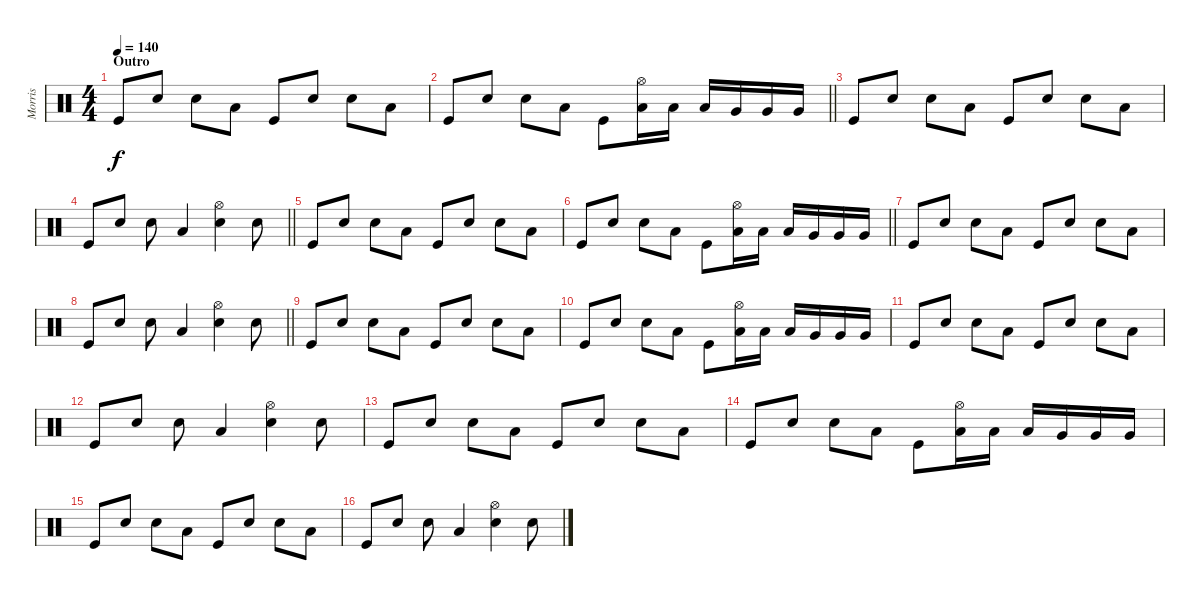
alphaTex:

\track ("Morris" "Morris") {instrument percussion}
\staff {score}
\articulation defaults
\ts (4 4)
\section ("" "Outro")
\tempo 140
\clef neutral
\ks c "Kick (hit)".8{dy f} "Electric Snare (hit)".8 "Electric Snare (hit)".8 "Low Tom (hit)".8 "Kick (hit)".8 "Electric Snare (hit)".8 "Electric Snare (hit)".8 "Low Tom (hit)".8
|
\barLineRight lightlight "Kick (hit)".8 "Electric Snare (hit)".8 "Electric Snare (hit)".8 "Low Tom (hit)".8 "Kick (hit)".8
("Hi-Hat (open)" "Low Tom (hit)").16 "Low Tom (hit)".16 "Low Tom (hit)".16 "Very Low Tom (hit)".16 "Very Low Tom (hit)".16 "Very Low Tom (hit)".16 |
"Kick (hit)".8 "Electric Snare (hit)".8 "Electric Snare (hit)".8 "Low Tom (hit)".8 "Kick (hit)".8 "Electric Snare (hit)".8 "Electric Snare (hit)".8 "Low Tom (hit)".8 |
\barLineRight lightlight "Kick (hit)".8 "Electric Snare (hit)".8 "Electric Snare (hit)".8 "Low Tom (hit)".4
("Hi-Hat (open)" "Electric Snare (hit)").4 "Electric Snare (hit)".8 |
"Kick (hit)".8 "Electric Snare (hit)".8 "Electric Snare (hit)".8 "Low Tom (hit)".8 "Kick (hit)".8 "Electric Snare (hit)".8 "Electric Snare (hit)".8 "Low Tom (hit)".8 |
\barLineRight lightlight "Kick (hit)".8 "Electric Snare (hit)".8 "Electric Snare (hit)".8 "Low Tom (hit)".8 "Kick (hit)".8
("Hi-Hat (open)" "Low Tom (hit)").16 "Low Tom (hit)".16 "Low Tom (hit)".16 "Very Low Tom (hit)".16 "Very Low Tom (hit)".16 "Very Low Tom (hit)".16 |
"Kick (hit)".8 "Electric Snare (hit)".8 "Electric Snare (hit)".8 "Low Tom (hit)".8 "Kick (hit)".8 "Electric Snare (hit)".8 "Electric Snare (hit)".8 "Low Tom (hit)".8 |
\barLineRight lightlight "Kick (hit)".8 "Electric Snare (hit)".8 "Electric Snare (hit)".8 "Low Tom (hit)".4
("Hi-Hat (open)" "Electric Snare (hit)").4 "Electric Snare (hit)".8 |
"Kick (hit)".8 "Electric Snare (hit)".8 "Electric Snare (hit)".8 "Low Tom (hit)".8 "Kick (hit)".8 "Electric Snare (hit)".8 "Electric Snare (hit)".8 "Low Tom (hit)".8 |
"Kick (hit)".8 "Electric Snare (hit)".8 "Electric Snare (hit)".8 "Low Tom (hit)".8 "Kick (hit)".8 ("Hi-Hat (open)" "Low Tom (hit)").16 "Low Tom (hit)".16 "Low Tom (hit)".16 "Very Low Tom (hit)".16 "Very Low Tom (hit)".16 "Very Low Tom (hit)".16 |
"Kick (hit)".8 "Electric Snare (hit)".8 "Electric Snare (hit)".8 "Low Tom (hit)".8 "Kick (hit)".8 "Electric Snare (hit)".8 "Electric Snare (hit)".8 "Low Tom (hit)".8 |
"Kick (hit)".8 "Electric Snare (hit)".8 "Electric Snare (hit)".8 "Low Tom (hit)".4 ("Hi-Hat (open)" "Electric Snare (hit)").4 "Electric Snare (hit)".8 |
"Kick (hit)".8 "Electric Snare (hit)".8 "Electric Snare (hit)".8 "Low Tom (hit)".8 "Kick (hit)".8 "Electric Snare (hit)".8 "Electric Snare (hit)".8 "Low Tom (hit)".8 |
"Kick (hit)".8 "Electric Snare (hit)".8 "Electric Snare (hit)".8 "Low Tom (hit)".8 "Kick (hit)".8 ("Hi-Hat (open)" "Low Tom (hit)").16 "Low Tom (hit)".16 "Low Tom (hit)".16 "Very Low Tom (hit)".16 "Very Low Tom (hit)".16 "Very Low Tom (hit)".16 |
"Kick (hit)".8 "Electric Snare (hit)".8 "Electric Snare (hit)".8 "Low Tom (hit)".8 "Kick (hit)".8 "Electric Snare (hit)".8 "Electric Snare (hit)".8 "Low Tom (hit)".8 |
"Kick (hit)".8 "Electric Snare (hit)".8 "Electric Snare (hit)".8 "Low Tom (hit)".4 ("Hi-Hat (open)" "Electric Snare (hit)").4 "Electric Snare (hit)".8
